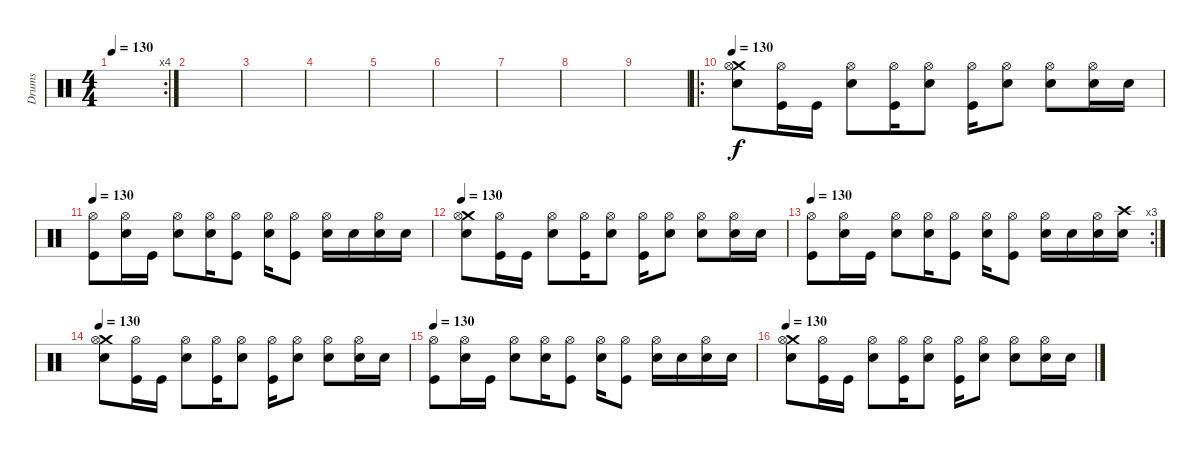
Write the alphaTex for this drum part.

\track ("Drums" "Drums") {instrument percussion}
\staff {score}
\articulation defaults
\rc 4
\ts (4 4)
\tempo 130
\clef neutral
\ks c
|
|
|
|
|
|
|
|
|
\ro
\tempo 130
("Crash medium (hit)" "Snare (hit) 2" "Hi-Hat (open)").8 ("Kick (hit)" "Hi-Hat (open)").16 "Kick (hit)".16 ("Snare (hit) 2" "Hi-Hat (open)").8 ("Kick (hit)" "Hi-Hat (open)").16 ("Snare (hit) 2" "Hi-Hat (open)").8 ("Kick (hit)" "Hi-Hat (open)").16 ("Snare (hit) 2" "Hi-Hat (open)").8 ("Snare (hit) 2" "Hi-Hat (open)").8 ("Snare (hit) 2" "Hi-Hat (open)").16 "Snare (hit) 2".16 |
\tempo 130
("Kick (hit)" "Hi-Hat (open)").8 ("Snare (hit) 2" "Hi-Hat (open)").16 "Kick (hit)".16 ("Snare (hit) 2" "Hi-Hat (open)").8 ("Snare (hit) 2" "Hi-Hat (open)").16 ("Kick (hit)" "Hi-Hat (open)").8 ("Snare (hit) 2" "Hi-Hat (open)").16 ("Kick (hit)" "Hi-Hat (open)").8 ("Snare (hit) 2" "Hi-Hat (open)").16 "Snare (hit) 2".16 ("Snare (hit) 2" "Hi-Hat (open)").16 "Snare (hit) 2".16 |
\tempo 130
("Crash medium (hit)" "Snare (hit) 2" "Hi-Hat (open)").8 ("Kick (hit)" "Hi-Hat (open)").16 "Kick (hit)".16 ("Snare (hit) 2" "Hi-Hat (open)").8 ("Kick (hit)" "Hi-Hat (open)").16 ("Snare (hit) 2" "Hi-Hat (open)").8 ("Kick (hit)" "Hi-Hat (open)").16 ("Snare (hit) 2" "Hi-Hat (open)").8 ("Snare (hit) 2" "Hi-Hat (open)").8 ("Snare (hit) 2" "Hi-Hat (open)").16 "Snare (hit) 2".16 |
\rc 3
\tempo 130
("Kick (hit)" "Hi-Hat (open)").8 ("Snare (hit) 2" "Hi-Hat (open)").16 "Kick (hit)".16 ("Snare (hit) 2" "Hi-Hat (open)").8 ("Snare (hit) 2" "Hi-Hat (open)").16 ("Kick (hit)" "Hi-Hat (open)").8 ("Snare (hit) 2" "Hi-Hat (open)").16 ("Kick (hit)" "Hi-Hat (open)").8 ("Snare (hit) 2" "Hi-Hat (open)").16 "Snare (hit) 2".16 ("Snare (hit) 2" "Hi-Hat (open)").16 ("Crash high (hit)" "Snare (hit) 2").16 |
\tempo 130
("Crash medium (hit)" "Snare (hit) 2" "Hi-Hat (open)").8 ("Kick (hit)" "Hi-Hat (open)").16 "Kick (hit)".16 ("Snare (hit) 2" "Hi-Hat (open)").8 ("Kick (hit)" "Hi-Hat (open)").16 ("Snare (hit) 2" "Hi-Hat (open)").8 ("Kick (hit)" "Hi-Hat (open)").16 ("Snare (hit) 2" "Hi-Hat (open)").8 ("Snare (hit) 2" "Hi-Hat (open)").8 ("Snare (hit) 2" "Hi-Hat (open)").16 "Snare (hit) 2".16 |
\tempo 130
("Kick (hit)" "Hi-Hat (open)").8 ("Snare (hit) 2" "Hi-Hat (open)").16 "Kick (hit)".16 ("Snare (hit) 2" "Hi-Hat (open)").8 ("Snare (hit) 2" "Hi-Hat (open)").16 ("Kick (hit)" "Hi-Hat (open)").8 ("Snare (hit) 2" "Hi-Hat (open)").16 ("Kick (hit)" "Hi-Hat (open)").8 ("Snare (hit) 2" "Hi-Hat (open)").16 "Snare (hit) 2".16 ("Snare (hit) 2" "Hi-Hat (open)").16 "Snare (hit) 2".16 |
\tempo 130
("Crash medium (hit)" "Snare (hit) 2" "Hi-Hat (open)").8 ("Kick (hit)" "Hi-Hat (open)").16 "Kick (hit)".16 ("Snare (hit) 2" "Hi-Hat (open)").8 ("Kick (hit)" "Hi-Hat (open)").16 ("Snare (hit) 2" "Hi-Hat (open)").8 ("Kick (hit)" "Hi-Hat (open)").16 ("Snare (hit) 2" "Hi-Hat (open)").8 ("Snare (hit) 2" "Hi-Hat (open)").8 ("Snare (hit) 2" "Hi-Hat (open)").16 "Snare (hit) 2".16
